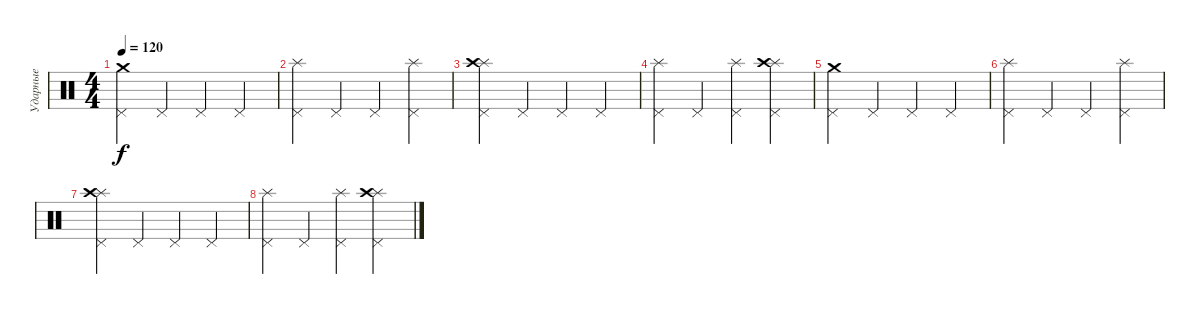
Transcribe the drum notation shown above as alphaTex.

\track ("Ударные" "Ударные") {instrument percussion}
\staff {score}
\articulation defaults
\ts (4 4)
\tempo 120
\clef neutral
\ks c
("Pedal Hi-Hat (hit)" "Crash medium (hit)").4{dy f} "Pedal Hi-Hat (hit)".4 "Pedal Hi-Hat (hit)".4 "Pedal Hi-Hat (hit)".4 |
("Pedal Hi-Hat (hit)" "Splash (hit)").4 "Pedal Hi-Hat (hit)".4 "Pedal Hi-Hat (hit)".4 ("Pedal Hi-Hat (hit)" "Splash (hit)").4 |
("Pedal Hi-Hat (hit)" "Splash (hit)" "Crash high (hit)").4 "Pedal Hi-Hat (hit)".4 "Pedal Hi-Hat (hit)".4 "Pedal Hi-Hat (hit)".4 |
("Pedal Hi-Hat (hit)" "Splash (hit)").4 "Pedal Hi-Hat (hit)".4 ("Pedal Hi-Hat (hit)" "Splash (hit)").4 ("Pedal Hi-Hat (hit)" "Splash (hit)" "Crash high (hit)").4 |
("Pedal Hi-Hat (hit)" "Crash medium (hit)").4 "Pedal Hi-Hat (hit)".4 "Pedal Hi-Hat (hit)".4 "Pedal Hi-Hat (hit)".4 |
("Pedal Hi-Hat (hit)" "Splash (hit)").4 "Pedal Hi-Hat (hit)".4 "Pedal Hi-Hat (hit)".4 ("Pedal Hi-Hat (hit)" "Splash (hit)").4 |
("Pedal Hi-Hat (hit)" "Splash (hit)" "Crash high (hit)").4 "Pedal Hi-Hat (hit)".4 "Pedal Hi-Hat (hit)".4 "Pedal Hi-Hat (hit)".4 |
("Pedal Hi-Hat (hit)" "Splash (hit)").4 "Pedal Hi-Hat (hit)".4 ("Pedal Hi-Hat (hit)" "Splash (hit)").4 ("Pedal Hi-Hat (hit)" "Splash (hit)" "Crash high (hit)").4
